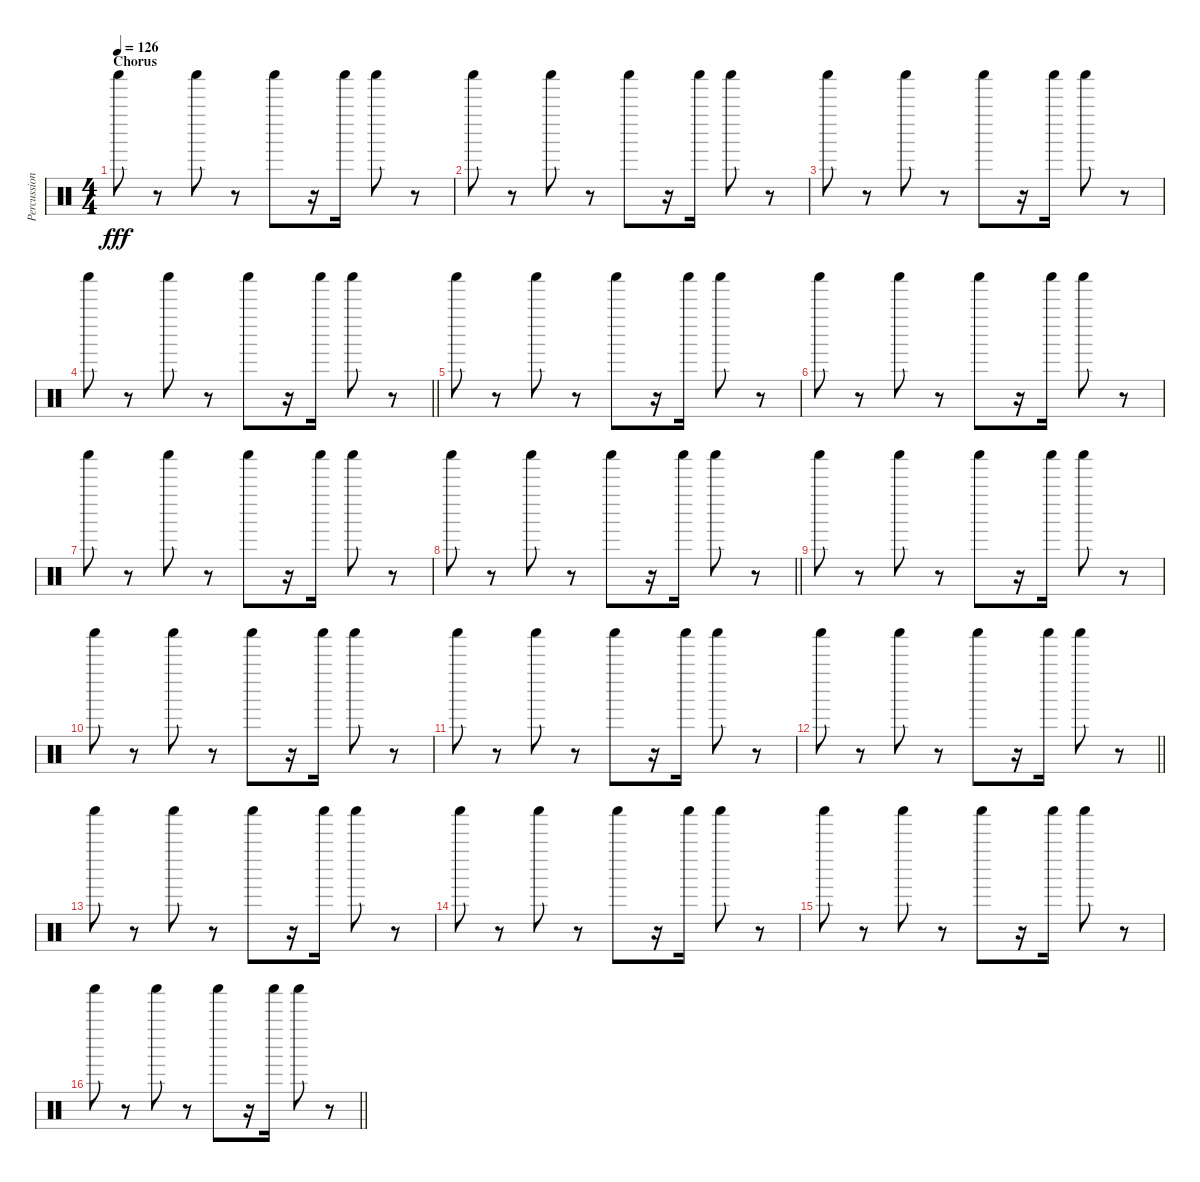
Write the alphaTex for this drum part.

\track ("Percussion" "Percussion") {instrument percussion}
\staff {score}
\articulation defaults
\ts (4 4)
\section ("" "Chorus")
\tempo 126
\clef neutral
\ks c "Shaker (hit)".8{dy fff}
r.8 "Shaker (hit)".8 r.8 "Shaker (hit)".8 r.16 "Shaker (hit)".16 "Shaker (hit)".8 r.8 |
"Shaker (hit)".8 r.8 "Shaker (hit)".8 r.8 "Shaker (hit)".8 r.16 "Shaker (hit)".16 "Shaker (hit)".8 r.8 |
"Shaker (hit)".8 r.8 "Shaker (hit)".8 r.8 "Shaker (hit)".8 r.16 "Shaker (hit)".16 "Shaker (hit)".8 r.8 |
\barLineRight lightlight "Shaker (hit)".8
r.8 "Shaker (hit)".8 r.8 "Shaker (hit)".8 r.16 "Shaker (hit)".16 "Shaker (hit)".8 r.8 |
"Shaker (hit)".8 r.8 "Shaker (hit)".8 r.8 "Shaker (hit)".8 r.16 "Shaker (hit)".16 "Shaker (hit)".8 r.8 |
"Shaker (hit)".8 r.8 "Shaker (hit)".8 r.8 "Shaker (hit)".8 r.16 "Shaker (hit)".16 "Shaker (hit)".8 r.8 |
"Shaker (hit)".8 r.8 "Shaker (hit)".8 r.8 "Shaker (hit)".8 r.16 "Shaker (hit)".16 "Shaker (hit)".8 r.8 |
\barLineRight lightlight "Shaker (hit)".8
r.8 "Shaker (hit)".8 r.8 "Shaker (hit)".8 r.16 "Shaker (hit)".16 "Shaker (hit)".8 r.8 |
"Shaker (hit)".8 r.8 "Shaker (hit)".8 r.8 "Shaker (hit)".8 r.16 "Shaker (hit)".16 "Shaker (hit)".8 r.8 |
"Shaker (hit)".8 r.8 "Shaker (hit)".8 r.8 "Shaker (hit)".8 r.16 "Shaker (hit)".16 "Shaker (hit)".8 r.8 |
"Shaker (hit)".8 r.8 "Shaker (hit)".8 r.8 "Shaker (hit)".8 r.16 "Shaker (hit)".16 "Shaker (hit)".8 r.8 |
\barLineRight lightlight "Shaker (hit)".8
r.8 "Shaker (hit)".8 r.8 "Shaker (hit)".8 r.16 "Shaker (hit)".16 "Shaker (hit)".8 r.8 |
"Shaker (hit)".8 r.8 "Shaker (hit)".8 r.8 "Shaker (hit)".8 r.16 "Shaker (hit)".16 "Shaker (hit)".8 r.8 |
"Shaker (hit)".8 r.8 "Shaker (hit)".8 r.8 "Shaker (hit)".8 r.16 "Shaker (hit)".16 "Shaker (hit)".8 r.8 |
"Shaker (hit)".8 r.8 "Shaker (hit)".8 r.8 "Shaker (hit)".8 r.16 "Shaker (hit)".16 "Shaker (hit)".8 r.8 |
\barLineRight lightlight "Shaker (hit)".8
r.8 "Shaker (hit)".8 r.8 "Shaker (hit)".8 r.16 "Shaker (hit)".16 "Shaker (hit)".8 r.8
